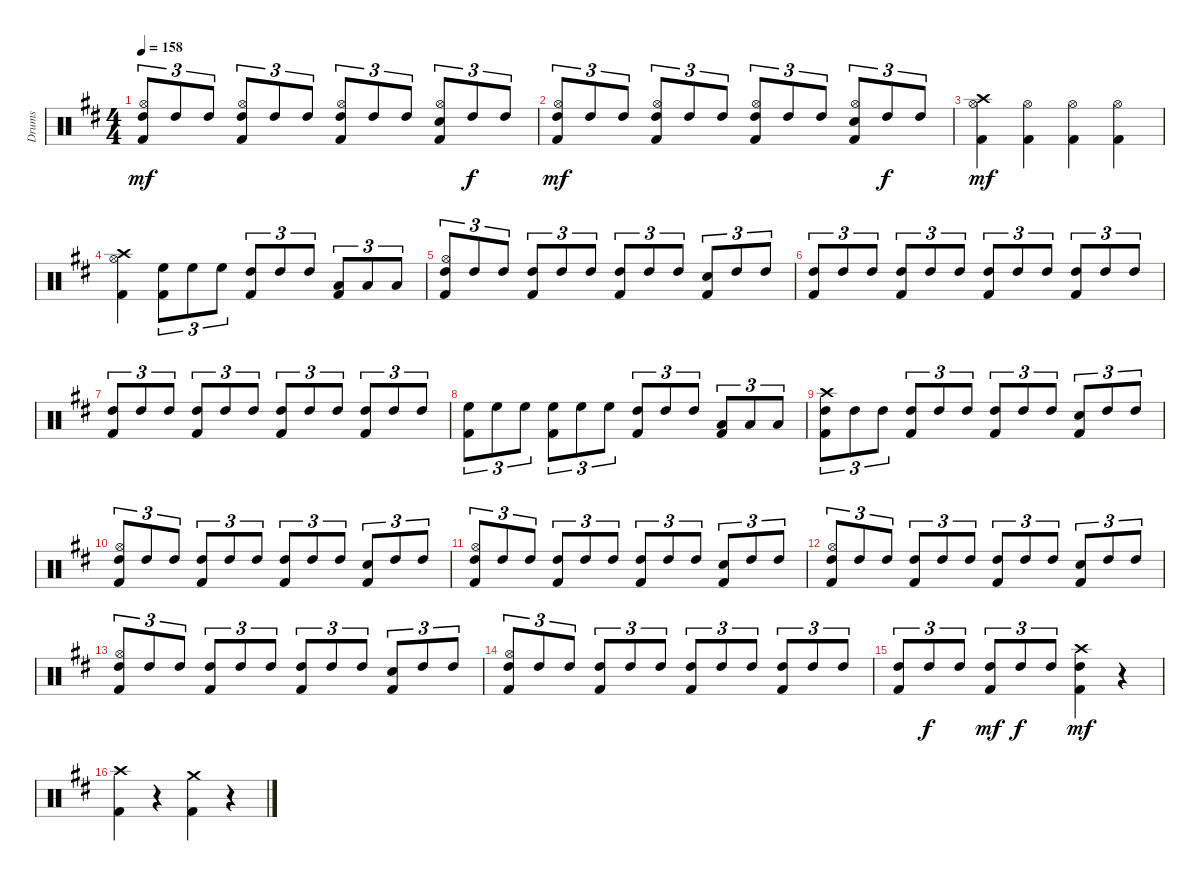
\track ("Drums" "Drums") {instrument percussion}
\staff {score}
\articulation defaults
\ts (4 4)
\tempo 158
\clef neutral
\ks d
("Kick (hit) 2" "Hi-Hat (open)" "High Tom (hit)").8{tu (3 2) dy mf} "High Tom (hit)".8{tu (3 2)} "High Tom (hit)".8{tu (3 2)} ("Kick (hit) 2" "Hi-Hat (open)" "High Tom (hit)").8{tu (3 2)} "High Tom (hit)".8{tu (3 2)} "High Tom (hit)".8{tu (3 2)} ("Kick (hit) 2" "Hi-Hat (open)" "High Tom (hit)").8{tu (3 2)} "High Tom (hit)".8{tu (3 2)} "High Tom (hit)".8{tu (3 2)} ("Kick (hit) 2" "Snare (hit) 2" "Hi-Hat (open)").8{tu (3 2)} "High Tom (hit)".8{tu (3 2) dy f} "High Tom (hit)".8{tu (3 2)} |
("Kick (hit) 2" "Hi-Hat (open)" "High Tom (hit)").8{tu (3 2) dy mf} "High Tom (hit)".8{tu (3 2)} "High Tom (hit)".8{tu (3 2)} ("Kick (hit) 2" "Hi-Hat (open)" "High Tom (hit)").8{tu (3 2)} "High Tom (hit)".8{tu (3 2)} "High Tom (hit)".8{tu (3 2)} ("Kick (hit) 2" "Hi-Hat (open)" "High Tom (hit)").8{tu (3 2)} "High Tom (hit)".8{tu (3 2)} "High Tom (hit)".8{tu (3 2)} ("Kick (hit) 2" "Snare (hit) 2" "Hi-Hat (open)").8{tu (3 2)} "High Tom (hit)".8{tu (3 2) dy f} "High Tom (hit)".8{tu (3 2)} |
("Kick (hit) 2" "Hi-Hat (open)" "Crash high (hit)").4{dy mf} ("Kick (hit) 2" "Hi-Hat (open)").4 ("Kick (hit) 2" "Hi-Hat (open)").4 ("Kick (hit) 2" "Hi-Hat (open)").4 |
("Kick (hit) 2" "Hi-Hat (open)" "Crash high (hit)").4 ("Kick (hit) 2" "High Floor Tom (hit)").8{tu (3 2)} "High Floor Tom (hit)".8{tu (3 2)} "High Floor Tom (hit)".8{tu (3 2)} ("Kick (hit) 2" "High Tom (hit)").8{tu (3 2)} "High Tom (hit)".8{tu (3 2)} "High Tom (hit)".8{tu (3 2)} ("Kick (hit) 2" "Low Tom (hit)").8{tu (3 2)} "Low Tom (hit)".8{tu (3 2)} "Low Tom (hit)".8{tu (3 2)} |
("Kick (hit) 2" "Hi-Hat (open)" "High Tom (hit)").8{tu (3 2)} "High Tom (hit)".8{tu (3 2)} "High Tom (hit)".8{tu (3 2)} ("Kick (hit) 2" "High Tom (hit)").8{tu (3 2)} "High Tom (hit)".8{tu (3 2)} "High Tom (hit)".8{tu (3 2)} ("Kick (hit) 2" "High Tom (hit)").8{tu (3 2)} "High Tom (hit)".8{tu (3 2)} "High Tom (hit)".8{tu (3 2)} ("Kick (hit) 2" "Snare (hit) 2").8{tu (3 2)} "High Tom (hit)".8{tu (3 2)} "High Tom (hit)".8{tu (3 2)} |
("Kick (hit) 2" "High Tom (hit)").8{tu (3 2)} "High Tom (hit)".8{tu (3 2)} "High Tom (hit)".8{tu (3 2)} ("Kick (hit) 2" "High Tom (hit)").8{tu (3 2)} "High Tom (hit)".8{tu (3 2)} "High Tom (hit)".8{tu (3 2)} ("Kick (hit) 2" "High Tom (hit)").8{tu (3 2)} "High Tom (hit)".8{tu (3 2)} "High Tom (hit)".8{tu (3 2)} ("Kick (hit) 2" "High Tom (hit)").8{tu (3 2)} "High Tom (hit)".8{tu (3 2)} "High Tom (hit)".8{tu (3 2)} |
("Kick (hit) 2" "High Tom (hit)").8{tu (3 2)} "High Tom (hit)".8{tu (3 2)} "High Tom (hit)".8{tu (3 2)} ("Kick (hit) 2" "High Tom (hit)").8{tu (3 2)} "High Tom (hit)".8{tu (3 2)} "High Tom (hit)".8{tu (3 2)} ("Kick (hit) 2" "High Tom (hit)").8{tu (3 2)} "High Tom (hit)".8{tu (3 2)} "High Tom (hit)".8{tu (3 2)} ("Kick (hit) 2" "High Tom (hit)").8{tu (3 2)} "High Tom (hit)".8{tu (3 2)} "High Tom (hit)".8{tu (3 2)} |
("Kick (hit) 2" "High Floor Tom (hit)").8{tu (3 2)} "High Floor Tom (hit)".8{tu (3 2)} "High Floor Tom (hit)".8{tu (3 2)} ("Kick (hit) 2" "High Floor Tom (hit)").8{tu (3 2)} "High Floor Tom (hit)".8{tu (3 2)} "High Floor Tom (hit)".8{tu (3 2)} ("Kick (hit) 2" "High Tom (hit)").8{tu (3 2)} "High Tom (hit)".8{tu (3 2)} "High Tom (hit)".8{tu (3 2)} ("Kick (hit) 2" "Low Tom (hit)").8{tu (3 2)} "Low Tom (hit)".8{tu (3 2)} "Low Tom (hit)".8{tu (3 2)} |
("Kick (hit) 2" "High Tom (hit)" "Crash high (hit)").8{tu (3 2)} "High Tom (hit)".8{tu (3 2)} "High Tom (hit)".8{tu (3 2)} ("Kick (hit) 2" "High Tom (hit)").8{tu (3 2)} "High Tom (hit)".8{tu (3 2)} "High Tom (hit)".8{tu (3 2)} ("Kick (hit) 2" "High Tom (hit)").8{tu (3 2)} "High Tom (hit)".8{tu (3 2)} "High Tom (hit)".8{tu (3 2)} ("Kick (hit) 2" "Snare (hit) 2").8{tu (3 2)} "High Tom (hit)".8{tu (3 2)} "High Tom (hit)".8{tu (3 2)} |
("Kick (hit) 2" "Hi-Hat (open)" "High Tom (hit)").8{tu (3 2)} "High Tom (hit)".8{tu (3 2)} "High Tom (hit)".8{tu (3 2)} ("Kick (hit) 2" "High Tom (hit)").8{tu (3 2)} "High Tom (hit)".8{tu (3 2)} "High Tom (hit)".8{tu (3 2)} ("Kick (hit) 2" "High Tom (hit)").8{tu (3 2)} "High Tom (hit)".8{tu (3 2)} "High Tom (hit)".8{tu (3 2)} ("Kick (hit) 2" "Snare (hit) 2").8{tu (3 2)} "High Tom (hit)".8{tu (3 2)} "High Tom (hit)".8{tu (3 2)} |
("Kick (hit) 2" "Hi-Hat (open)" "High Tom (hit)").8{tu (3 2)} "High Tom (hit)".8{tu (3 2)} "High Tom (hit)".8{tu (3 2)} ("Kick (hit) 2" "High Tom (hit)").8{tu (3 2)} "High Tom (hit)".8{tu (3 2)} "High Tom (hit)".8{tu (3 2)} ("Kick (hit) 2" "High Tom (hit)").8{tu (3 2)} "High Tom (hit)".8{tu (3 2)} "High Tom (hit)".8{tu (3 2)} ("Kick (hit) 2" "Snare (hit) 2").8{tu (3 2)} "High Tom (hit)".8{tu (3 2)} "High Tom (hit)".8{tu (3 2)} |
("Kick (hit) 2" "Hi-Hat (open)" "High Tom (hit)").8{tu (3 2)} "High Tom (hit)".8{tu (3 2)} "High Tom (hit)".8{tu (3 2)} ("Kick (hit) 2" "High Tom (hit)").8{tu (3 2)} "High Tom (hit)".8{tu (3 2)} "High Tom (hit)".8{tu (3 2)} ("Kick (hit) 2" "High Tom (hit)").8{tu (3 2)} "High Tom (hit)".8{tu (3 2)} "High Tom (hit)".8{tu (3 2)} ("Kick (hit) 2" "Snare (hit) 2").8{tu (3 2)} "High Tom (hit)".8{tu (3 2)} "High Tom (hit)".8{tu (3 2)} |
("Kick (hit) 2" "Hi-Hat (open)" "High Tom (hit)").8{tu (3 2)} "High Tom (hit)".8{tu (3 2)} "High Tom (hit)".8{tu (3 2)} ("Kick (hit) 2" "High Tom (hit)").8{tu (3 2)} "High Tom (hit)".8{tu (3 2)} "High Tom (hit)".8{tu (3 2)} ("Kick (hit) 2" "High Tom (hit)").8{tu (3 2)} "High Tom (hit)".8{tu (3 2)} "High Tom (hit)".8{tu (3 2)} ("Kick (hit) 2" "Snare (hit) 2").8{tu (3 2)} "High Tom (hit)".8{tu (3 2)} "High Tom (hit)".8{tu (3 2)} |
("Kick (hit) 2" "Hi-Hat (open)" "High Tom (hit)").8{tu (3 2)} "High Tom (hit)".8{tu (3 2)} "High Tom (hit)".8{tu (3 2)} ("Kick (hit) 2" "High Tom (hit)").8{tu (3 2)} "High Tom (hit)".8{tu (3 2)} "High Tom (hit)".8{tu (3 2)} ("Kick (hit) 2" "High Tom (hit)").8{tu (3 2)} "High Tom (hit)".8{tu (3 2)} "High Tom (hit)".8{tu (3 2)} ("Kick (hit) 2" "High Tom (hit)").8{tu (3 2)} "High Tom (hit)".8{tu (3 2)} "High Tom (hit)".8{tu (3 2)} |
("Kick (hit) 2" "High Tom (hit)").8{tu (3 2)} "High Tom (hit)".8{tu (3 2) dy f} "High Tom (hit)".8{tu (3 2)} ("Kick (hit) 2" "High Tom (hit)").8{tu (3 2) dy mf} "High Tom (hit)".8{tu (3 2) dy f} "High Tom (hit)".8{tu (3 2)} ("Kick (hit) 2" "High Tom (hit)" "Crash high (hit)").4{dy mf} r.4 |
("Kick (hit) 2" "Crash high (hit)").4 r.4 ("Kick (hit) 2" "Crash medium (hit)").4 r.4
